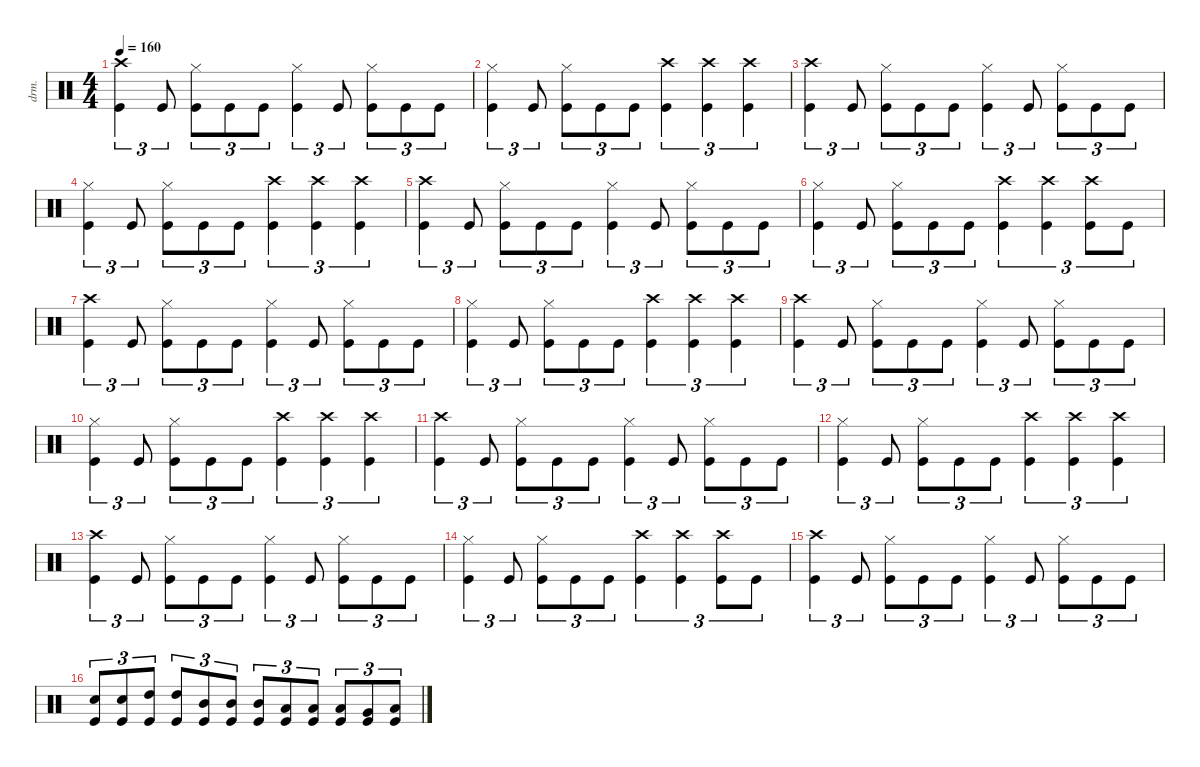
\defaultSystemsLayout 4
\hideDynamics
\bracketExtendMode nobrackets
\otherSystemsTrackNameOrientation horizontal
\track ("Nick Menza" "drm.") {defaultSystemsLayout 4 instrument percussion}
\staff {score}
\articulation defaults
\ts (4 4)
\tempo 160
\clef neutral
\ks c
("Crash high (hit)" "Kick (hit)").4{tu (3 2) dy f beam Down} "Kick (hit)".8{tu (3 2) beam Up} ("Hi-Hat (closed)" "Kick (hit)").8{tu (3 2) beam Down} "Kick (hit)".8{tu (3 2) beam Down} "Kick (hit)".8{tu (3 2) beam Down} ("Hi-Hat (closed)" "Kick (hit)").4{tu (3 2) beam Down} "Kick (hit)".8{tu (3 2) beam Up} ("Hi-Hat (closed)" "Kick (hit)").8{tu (3 2) beam Down} "Kick (hit)".8{tu (3 2) beam Down} "Kick (hit)".8{tu (3 2) beam Down} |
("Hi-Hat (closed)" "Kick (hit)").4{tu (3 2) beam Down} "Kick (hit)".8{tu (3 2) beam Up} ("Hi-Hat (closed)" "Kick (hit)").8{tu (3 2) beam Down} "Kick (hit)".8{tu (3 2) beam Down} "Kick (hit)".8{tu (3 2) beam Down} ("Crash high (hit)" "Kick (hit)").4{tu (3 2) beam Down} ("Crash high (hit)" "Kick (hit)").4{tu (3 2) beam Down} ("Crash high (hit)" "Kick (hit)").4{tu (3 2) beam Down} |
("Crash high (hit)" "Kick (hit)").4{tu (3 2) beam Down} "Kick (hit)".8{tu (3 2) beam Up} ("Hi-Hat (closed)" "Kick (hit)").8{tu (3 2) beam Down} "Kick (hit)".8{tu (3 2) beam Down} "Kick (hit)".8{tu (3 2) beam Down} ("Hi-Hat (closed)" "Kick (hit)").4{tu (3 2) beam Down} "Kick (hit)".8{tu (3 2) beam Up} ("Hi-Hat (closed)" "Kick (hit)").8{tu (3 2) beam Down} "Kick (hit)".8{tu (3 2) beam Down} "Kick (hit)".8{tu (3 2) beam Down} |
("Hi-Hat (closed)" "Kick (hit)").4{tu (3 2) beam Down} "Kick (hit)".8{tu (3 2) beam Up} ("Hi-Hat (closed)" "Kick (hit)").8{tu (3 2) beam Down} "Kick (hit)".8{tu (3 2) beam Down} "Kick (hit)".8{tu (3 2) beam Down} ("Crash high (hit)" "Kick (hit)").4{tu (3 2) beam Down} ("Crash high (hit)" "Kick (hit)").4{tu (3 2) beam Down} ("Crash high (hit)" "Kick (hit)").4{tu (3 2) beam Down} |
("Crash high (hit)" "Kick (hit)").4{tu (3 2) beam Down} "Kick (hit)".8{tu (3 2) beam Up} ("Hi-Hat (closed)" "Kick (hit)").8{tu (3 2) beam Down} "Kick (hit)".8{tu (3 2) beam Down} "Kick (hit)".8{tu (3 2) beam Down} ("Hi-Hat (closed)" "Kick (hit)").4{tu (3 2) beam Down} "Kick (hit)".8{tu (3 2) beam Up} ("Hi-Hat (closed)" "Kick (hit)").8{tu (3 2) beam Down} "Kick (hit)".8{tu (3 2) beam Down} "Kick (hit)".8{tu (3 2) beam Down} |
("Hi-Hat (closed)" "Kick (hit)").4{tu (3 2) beam Down} "Kick (hit)".8{tu (3 2) beam Up} ("Hi-Hat (closed)" "Kick (hit)").8{tu (3 2) beam Down} "Kick (hit)".8{tu (3 2) beam Down} "Kick (hit)".8{tu (3 2) beam Down} ("Crash high (hit)" "Kick (hit)").4{tu (3 2) beam Down} ("Crash high (hit)" "Kick (hit)").4{tu (3 2) beam Down} ("Crash high (hit)" "Kick (hit)").8{tu (3 2) beam Down} "Kick (hit)".8{tu (3 2) beam Down} |
("Crash high (hit)" "Kick (hit)").4{tu (3 2) beam Down} "Kick (hit)".8{tu (3 2) beam Up} ("Hi-Hat (closed)" "Kick (hit)").8{tu (3 2) beam Down} "Kick (hit)".8{tu (3 2) beam Down} "Kick (hit)".8{tu (3 2) beam Down} ("Hi-Hat (closed)" "Kick (hit)").4{tu (3 2) beam Down} "Kick (hit)".8{tu (3 2) beam Up} ("Hi-Hat (closed)" "Kick (hit)").8{tu (3 2) beam Down} "Kick (hit)".8{tu (3 2) beam Down} "Kick (hit)".8{tu (3 2) beam Down} |
("Hi-Hat (closed)" "Kick (hit)").4{tu (3 2) beam Down} "Kick (hit)".8{tu (3 2) beam Up} ("Hi-Hat (closed)" "Kick (hit)").8{tu (3 2) beam Down} "Kick (hit)".8{tu (3 2) beam Down} "Kick (hit)".8{tu (3 2) beam Down} ("Crash high (hit)" "Kick (hit)").4{tu (3 2) beam Down} ("Crash high (hit)" "Kick (hit)").4{tu (3 2) beam Down} ("Crash high (hit)" "Kick (hit)").4{tu (3 2) beam Down} |
("Crash high (hit)" "Kick (hit)").4{tu (3 2) beam Down} "Kick (hit)".8{tu (3 2) beam Up} ("Hi-Hat (closed)" "Kick (hit)").8{tu (3 2) beam Down} "Kick (hit)".8{tu (3 2) beam Down} "Kick (hit)".8{tu (3 2) beam Down} ("Hi-Hat (closed)" "Kick (hit)").4{tu (3 2) beam Down} "Kick (hit)".8{tu (3 2) beam Up} ("Hi-Hat (closed)" "Kick (hit)").8{tu (3 2) beam Down} "Kick (hit)".8{tu (3 2) beam Down} "Kick (hit)".8{tu (3 2) beam Down} |
("Hi-Hat (closed)" "Kick (hit)").4{tu (3 2) beam Down} "Kick (hit)".8{tu (3 2) beam Up} ("Hi-Hat (closed)" "Kick (hit)").8{tu (3 2) beam Down} "Kick (hit)".8{tu (3 2) beam Down} "Kick (hit)".8{tu (3 2) beam Down} ("Crash high (hit)" "Kick (hit)").4{tu (3 2) beam Down} ("Crash high (hit)" "Kick (hit)").4{tu (3 2) beam Down} ("Crash high (hit)" "Kick (hit)").4{tu (3 2) beam Down} |
("Crash high (hit)" "Kick (hit)").4{tu (3 2) beam Down} "Kick (hit)".8{tu (3 2) beam Up} ("Hi-Hat (closed)" "Kick (hit)").8{tu (3 2) beam Down} "Kick (hit)".8{tu (3 2) beam Down} "Kick (hit)".8{tu (3 2) beam Down} ("Hi-Hat (closed)" "Kick (hit)").4{tu (3 2) beam Down} "Kick (hit)".8{tu (3 2) beam Up} ("Hi-Hat (closed)" "Kick (hit)").8{tu (3 2) beam Down} "Kick (hit)".8{tu (3 2) beam Down} "Kick (hit)".8{tu (3 2) beam Down} |
("Hi-Hat (closed)" "Kick (hit)").4{tu (3 2) beam Down} "Kick (hit)".8{tu (3 2) beam Up} ("Hi-Hat (closed)" "Kick (hit)").8{tu (3 2) beam Down} "Kick (hit)".8{tu (3 2) beam Down} "Kick (hit)".8{tu (3 2) beam Down} ("Crash high (hit)" "Kick (hit)").4{tu (3 2) beam Down} ("Crash high (hit)" "Kick (hit)").4{tu (3 2) beam Down} ("Crash high (hit)" "Kick (hit)").4{tu (3 2) beam Down} |
("Crash high (hit)" "Kick (hit)").4{tu (3 2) beam Down} "Kick (hit)".8{tu (3 2) beam Up} ("Hi-Hat (closed)" "Kick (hit)").8{tu (3 2) beam Down} "Kick (hit)".8{tu (3 2) beam Down} "Kick (hit)".8{tu (3 2) beam Down} ("Hi-Hat (closed)" "Kick (hit)").4{tu (3 2) beam Down} "Kick (hit)".8{tu (3 2) beam Up} ("Hi-Hat (closed)" "Kick (hit)").8{tu (3 2) beam Down} "Kick (hit)".8{tu (3 2) beam Down} "Kick (hit)".8{tu (3 2) beam Down} |
("Hi-Hat (closed)" "Kick (hit)").4{tu (3 2) beam Down} "Kick (hit)".8{tu (3 2) beam Up} ("Hi-Hat (closed)" "Kick (hit)").8{tu (3 2) beam Down} "Kick (hit)".8{tu (3 2) beam Down} "Kick (hit)".8{tu (3 2) beam Down} ("Crash high (hit)" "Kick (hit)").4{tu (3 2) beam Down} ("Crash high (hit)" "Kick (hit)").4{tu (3 2) beam Down} ("Crash high (hit)" "Kick (hit)").8{tu (3 2) beam Down} "Kick (hit)".8{tu (3 2) beam Down} |
("Crash high (hit)" "Kick (hit)").4{tu (3 2) beam Down} "Kick (hit)".8{tu (3 2) beam Up} ("Hi-Hat (closed)" "Kick (hit)").8{tu (3 2) beam Down} "Kick (hit)".8{tu (3 2) beam Down} "Kick (hit)".8{tu (3 2) beam Down} ("Hi-Hat (closed)" "Kick (hit)").4{tu (3 2) beam Down} "Kick (hit)".8{tu (3 2) beam Up} ("Hi-Hat (closed)" "Kick (hit)").8{tu (3 2) beam Down} "Kick (hit)".8{tu (3 2) beam Down} "Kick (hit)".8{tu (3 2) beam Down} |
("Snare (hit) 2" "Kick (hit)").8{tu (3 2) beam Up} ("Snare (hit) 2" "Kick (hit)").8{tu (3 2) beam Up} ("High Tom (hit)" "Kick (hit)").8{tu (3 2) beam Up} ("High Tom (hit)" "Kick (hit)").8{tu (3 2) beam Up} ("Mid Tom (hit)" "Kick (hit)").8{tu (3 2) beam Up} ("Mid Tom (hit)" "Kick (hit)").8{tu (3 2) beam Up} ("Mid Tom (hit)" "Kick (hit)").8{tu (3 2) beam Up} ("Low Tom (hit)" "Kick (hit)").8{tu (3 2) beam Up} ("Low Tom (hit)" "Kick (hit)").8{tu (3 2) beam Up} ("Low Tom (hit)" "Kick (hit)").8{tu (3 2) beam Up} ("Very Low Tom (hit)" "Kick (hit)").8{tu (3 2) beam Up} ("Low Floor Tom (hit)" "Kick (hit)").8{tu (3 2) beam Up}
